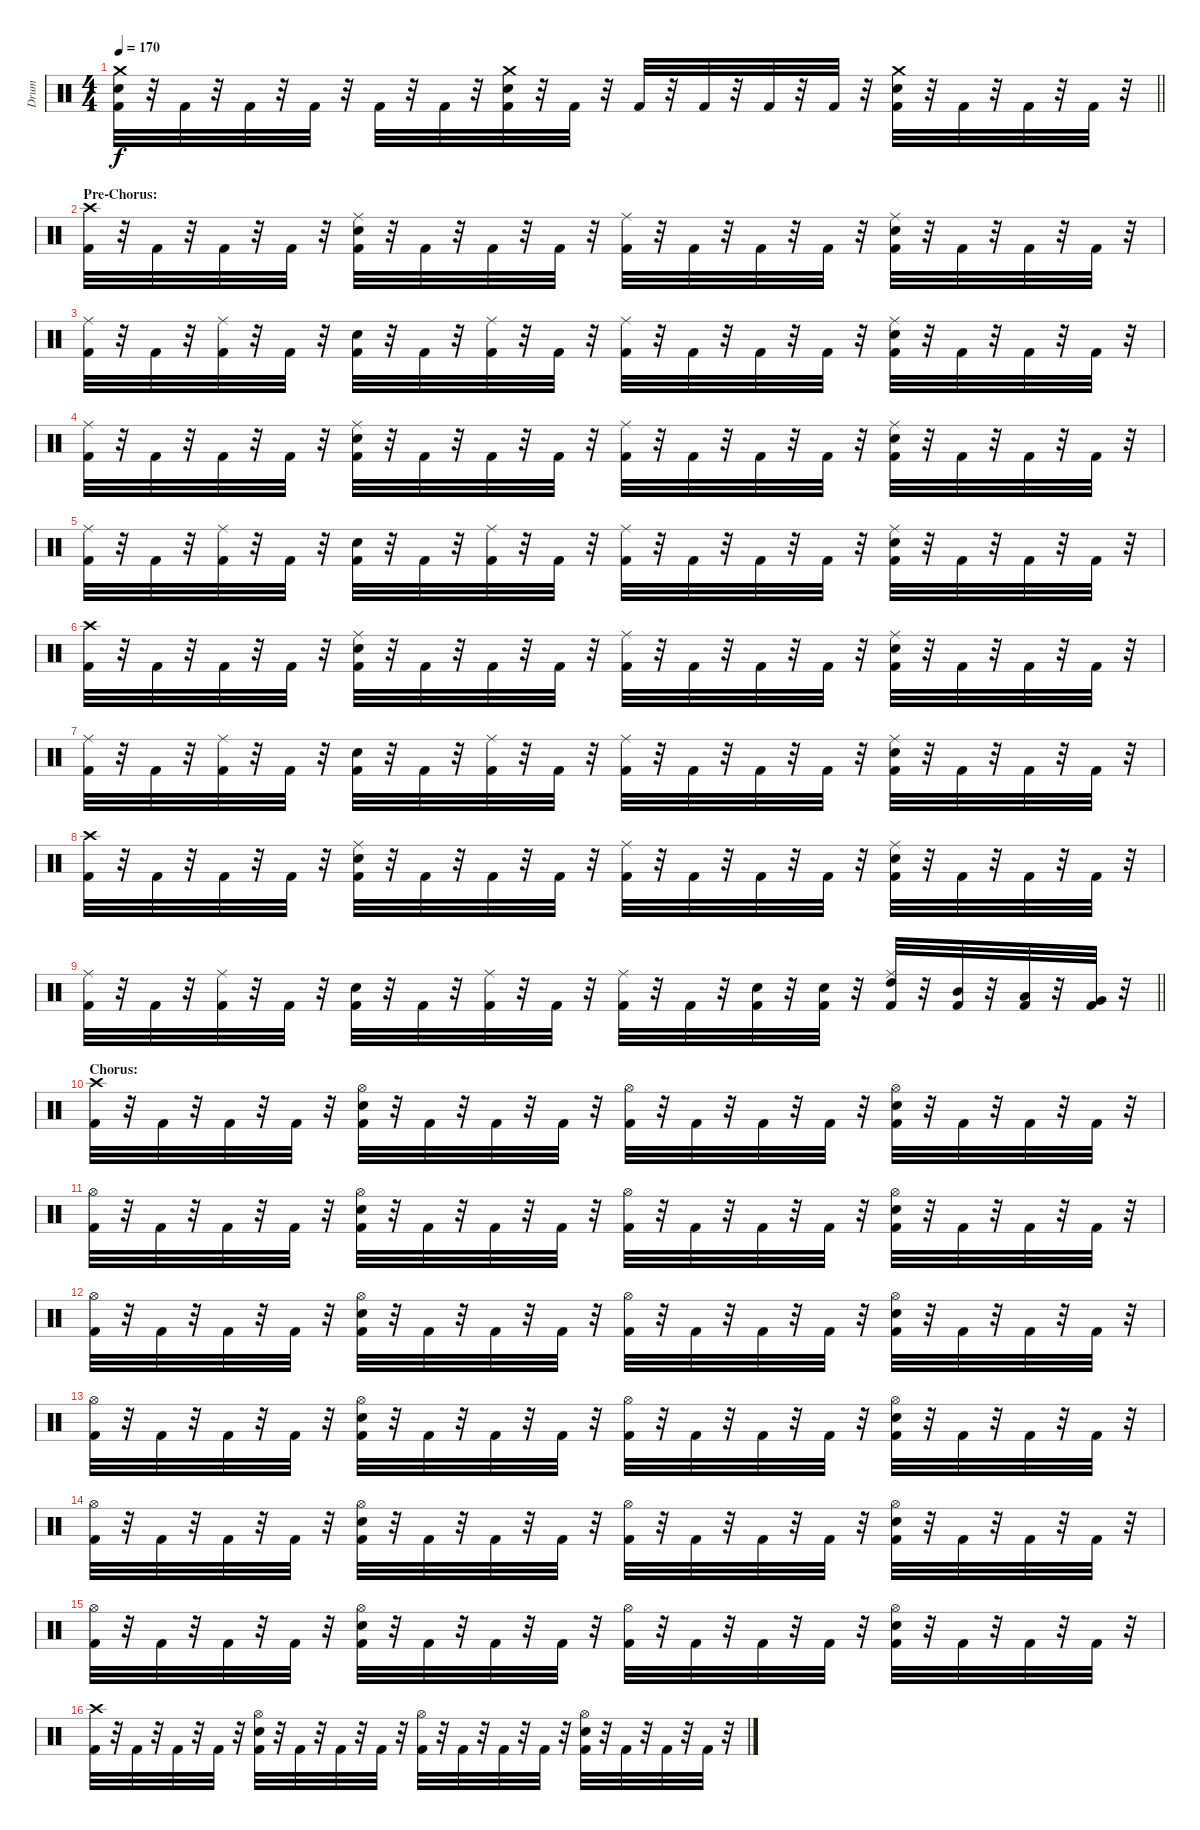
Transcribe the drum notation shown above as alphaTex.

\track ("Drum" "Drum") {instrument percussion}
\staff {score}
\articulation defaults
\ts (4 4)
\tempo 170
\clef neutral
\barLineRight lightlight
\ks c
("Crash medium (hit)" "Snare (hit) 2" "Kick (hit) 2").32{dy f} r.32 "Kick (hit) 2".32 r.32 "Kick (hit) 2".32 r.32 "Kick (hit) 2".32 r.32 "Kick (hit) 2".32 r.32 "Kick (hit) 2".32 r.32 ("Crash medium (hit)" "Snare (hit) 2" "Kick (hit) 2").32 r.32 "Kick (hit) 2".32 r.32 "Kick (hit) 2".32 r.32 "Kick (hit) 2".32 r.32 "Kick (hit) 2".32 r.32 "Kick (hit) 2".32 r.32 ("Crash medium (hit)" "Snare (hit) 2" "Kick (hit) 2").32 r.32 "Kick (hit) 2".32 r.32 "Kick (hit) 2".32 r.32 "Kick (hit) 2".32 r.32 |
\section ("" "Pre-Chorus:")
("Crash high (hit)" "Kick (hit) 2").32 r.32 "Kick (hit) 2".32 r.32 "Kick (hit) 2".32 r.32 "Kick (hit) 2".32 r.32 ("Kick (hit) 2" "Snare (hit) 2" "Ride (middle)").32 r.32 "Kick (hit) 2".32 r.32 "Kick (hit) 2".32 r.32 "Kick (hit) 2".32 r.32 ("Kick (hit) 2" "Ride (middle)").32 r.32 "Kick (hit) 2".32 r.32 "Kick (hit) 2".32 r.32 "Kick (hit) 2".32 r.32 ("Kick (hit) 2" "Snare (hit) 2" "Ride (middle)").32 r.32 "Kick (hit) 2".32 r.32 "Kick (hit) 2".32 r.32 "Kick (hit) 2".32 r.32 |
("Kick (hit) 2" "Ride (middle)").32 r.32 "Kick (hit) 2".32 r.32 ("Kick (hit) 2" "Ride (middle)").32 r.32 "Kick (hit) 2".32 r.32 ("Kick (hit) 2" "Snare (hit) 2").32 r.32 "Kick (hit) 2".32 r.32 ("Kick (hit) 2" "Ride (middle)").32 r.32 "Kick (hit) 2".32 r.32 ("Kick (hit) 2" "Ride (middle)").32 r.32 "Kick (hit) 2".32 r.32 "Kick (hit) 2".32 r.32 "Kick (hit) 2".32 r.32 ("Kick (hit) 2" "Snare (hit) 2" "Ride (middle)").32 r.32 "Kick (hit) 2".32 r.32 "Kick (hit) 2".32 r.32 "Kick (hit) 2".32 r.32 |
("Kick (hit) 2" "Ride (middle)").32 r.32 "Kick (hit) 2".32 r.32 "Kick (hit) 2".32 r.32 "Kick (hit) 2".32 r.32 ("Kick (hit) 2" "Ride (middle)" "Snare (hit) 2").32 r.32 "Kick (hit) 2".32 r.32 "Kick (hit) 2".32 r.32 "Kick (hit) 2".32 r.32 ("Kick (hit) 2" "Ride (middle)").32 r.32 "Kick (hit) 2".32 r.32 "Kick (hit) 2".32 r.32 "Kick (hit) 2".32 r.32 ("Kick (hit) 2" "Ride (middle)" "Snare (hit) 2").32 r.32 "Kick (hit) 2".32 r.32 "Kick (hit) 2".32 r.32 "Kick (hit) 2".32 r.32 |
("Kick (hit) 2" "Ride (middle)").32 r.32 "Kick (hit) 2".32 r.32 ("Kick (hit) 2" "Ride (middle)").32 r.32 "Kick (hit) 2".32 r.32 ("Kick (hit) 2" "Snare (hit) 2").32 r.32 "Kick (hit) 2".32 r.32 ("Kick (hit) 2" "Ride (middle)").32 r.32 "Kick (hit) 2".32 r.32 ("Kick (hit) 2" "Ride (middle)").32 r.32 "Kick (hit) 2".32 r.32 "Kick (hit) 2".32 r.32 "Kick (hit) 2".32 r.32 ("Kick (hit) 2" "Ride (middle)" "Snare (hit) 2").32 r.32 "Kick (hit) 2".32 r.32 "Kick (hit) 2".32 r.32 "Kick (hit) 2".32 r.32 |
("Kick (hit) 2" "Crash high (hit)").32 r.32 "Kick (hit) 2".32 r.32 "Kick (hit) 2".32 r.32 "Kick (hit) 2".32 r.32 ("Kick (hit) 2" "Ride (middle)" "Snare (hit) 2").32 r.32 "Kick (hit) 2".32 r.32 "Kick (hit) 2".32 r.32 "Kick (hit) 2".32 r.32 ("Kick (hit) 2" "Ride (middle)").32 r.32 "Kick (hit) 2".32 r.32 "Kick (hit) 2".32 r.32 "Kick (hit) 2".32 r.32 ("Kick (hit) 2" "Ride (middle)" "Snare (hit) 2").32 r.32 "Kick (hit) 2".32 r.32 "Kick (hit) 2".32 r.32 "Kick (hit) 2".32 r.32 |
("Kick (hit) 2" "Ride (middle)").32 r.32 "Kick (hit) 2".32 r.32 ("Kick (hit) 2" "Ride (middle)").32 r.32 "Kick (hit) 2".32 r.32 ("Kick (hit) 2" "Snare (hit) 2").32 r.32 "Kick (hit) 2".32 r.32 ("Kick (hit) 2" "Ride (middle)").32 r.32 "Kick (hit) 2".32 r.32 ("Kick (hit) 2" "Ride (middle)").32 r.32 "Kick (hit) 2".32 r.32 "Kick (hit) 2".32 r.32 "Kick (hit) 2".32 r.32 ("Kick (hit) 2" "Ride (middle)" "Snare (hit) 2").32 r.32 "Kick (hit) 2".32 r.32 "Kick (hit) 2".32 r.32 "Kick (hit) 2".32 r.32 |
("Crash high (hit)" "Kick (hit) 2").32 r.32 "Kick (hit) 2".32 r.32 "Kick (hit) 2".32 r.32 "Kick (hit) 2".32 r.32 ("Kick (hit) 2" "Ride (middle)" "Snare (hit) 2").32 r.32 "Kick (hit) 2".32 r.32 "Kick (hit) 2".32 r.32 "Kick (hit) 2".32 r.32 ("Kick (hit) 2" "Ride (middle)").32 r.32 "Kick (hit) 2".32 r.32 "Kick (hit) 2".32 r.32 "Kick (hit) 2".32 r.32 ("Kick (hit) 2" "Ride (middle)" "Snare (hit) 2").32 r.32 "Kick (hit) 2".32 r.32 "Kick (hit) 2".32 r.32 "Kick (hit) 2".32 r.32 |
\barLineRight lightlight
("Kick (hit) 2" "Ride (middle)").32 r.32 "Kick (hit) 2".32 r.32 ("Kick (hit) 2" "Ride (middle)").32 r.32 "Kick (hit) 2".32 r.32 ("Kick (hit) 2" "Snare (hit) 2").32 r.32 "Kick (hit) 2".32 r.32 ("Kick (hit) 2" "Ride (middle)").32 r.32 "Kick (hit) 2".32 r.32 ("Kick (hit) 2" "Ride (middle)").32 r.32 "Kick (hit) 2".32 r.32 ("Kick (hit) 2" "Snare (hit) 2").32 r.32 ("Kick (hit) 2" "Snare (hit) 2").32 r.32 ("Kick (hit) 2" "Ride (middle)" "High Tom (hit)").32 r.32 ("Kick (hit) 2" "Mid Tom (hit)").32 r.32 ("Kick (hit) 2" "Low Tom (hit)").32 r.32 ("Kick (hit) 2" "Very Low Tom (hit)").32 r.32 |
\section ("" "Chorus:")
("Kick (hit) 2" "Crash high (hit)").32 r.32 "Kick (hit) 2".32 r.32 "Kick (hit) 2".32 r.32 "Kick (hit) 2".32 r.32 ("Kick (hit) 2" "Snare (hit) 2" "Hi-Hat (open)").32 r.32 "Kick (hit) 2".32 r.32 "Kick (hit) 2".32 r.32 "Kick (hit) 2".32 r.32 ("Kick (hit) 2" "Hi-Hat (open)").32 r.32 "Kick (hit) 2".32 r.32 "Kick (hit) 2".32 r.32 "Kick (hit) 2".32 r.32 ("Kick (hit) 2" "Snare (hit) 2" "Hi-Hat (open)").32 r.32 "Kick (hit) 2".32 r.32 "Kick (hit) 2".32 r.32 "Kick (hit) 2".32 r.32 |
("Kick (hit) 2" "Hi-Hat (open)").32 r.32 "Kick (hit) 2".32 r.32 "Kick (hit) 2".32 r.32 "Kick (hit) 2".32 r.32 ("Kick (hit) 2" "Hi-Hat (open)" "Snare (hit) 2").32 r.32 "Kick (hit) 2".32 r.32 "Kick (hit) 2".32 r.32 "Kick (hit) 2".32 r.32 ("Kick (hit) 2" "Hi-Hat (open)").32 r.32 "Kick (hit) 2".32 r.32 "Kick (hit) 2".32 r.32 "Kick (hit) 2".32 r.32 ("Kick (hit) 2" "Hi-Hat (open)" "Snare (hit) 2").32 r.32 "Kick (hit) 2".32 r.32 "Kick (hit) 2".32 r.32 "Kick (hit) 2".32 r.32 |
("Kick (hit) 2" "Hi-Hat (open)").32 r.32 "Kick (hit) 2".32 r.32 "Kick (hit) 2".32 r.32 "Kick (hit) 2".32 r.32 ("Kick (hit) 2" "Hi-Hat (open)" "Snare (hit) 2").32 r.32 "Kick (hit) 2".32 r.32 "Kick (hit) 2".32 r.32 "Kick (hit) 2".32 r.32 ("Kick (hit) 2" "Hi-Hat (open)").32 r.32 "Kick (hit) 2".32 r.32 "Kick (hit) 2".32 r.32 "Kick (hit) 2".32 r.32 ("Kick (hit) 2" "Hi-Hat (open)" "Snare (hit) 2").32 r.32 "Kick (hit) 2".32 r.32 "Kick (hit) 2".32 r.32 "Kick (hit) 2".32 r.32 |
("Kick (hit) 2" "Hi-Hat (open)").32 r.32 "Kick (hit) 2".32 r.32 "Kick (hit) 2".32 r.32 "Kick (hit) 2".32 r.32 ("Kick (hit) 2" "Snare (hit) 2" "Hi-Hat (open)").32 r.32 "Kick (hit) 2".32 r.32 "Kick (hit) 2".32 r.32 "Kick (hit) 2".32 r.32 ("Kick (hit) 2" "Hi-Hat (open)").32 r.32 "Kick (hit) 2".32 r.32 "Kick (hit) 2".32 r.32 "Kick (hit) 2".32 r.32 ("Kick (hit) 2" "Snare (hit) 2" "Hi-Hat (open)").32 r.32 "Kick (hit) 2".32 r.32 "Kick (hit) 2".32 r.32 "Kick (hit) 2".32 r.32 |
("Kick (hit) 2" "Hi-Hat (open)").32 r.32 "Kick (hit) 2".32 r.32 "Kick (hit) 2".32 r.32 "Kick (hit) 2".32 r.32 ("Kick (hit) 2" "Hi-Hat (open)" "Snare (hit) 2").32 r.32 "Kick (hit) 2".32 r.32 "Kick (hit) 2".32 r.32 "Kick (hit) 2".32 r.32 ("Kick (hit) 2" "Hi-Hat (open)").32 r.32 "Kick (hit) 2".32 r.32 "Kick (hit) 2".32 r.32 "Kick (hit) 2".32 r.32 ("Kick (hit) 2" "Hi-Hat (open)" "Snare (hit) 2").32 r.32 "Kick (hit) 2".32 r.32 "Kick (hit) 2".32 r.32 "Kick (hit) 2".32 r.32 |
("Kick (hit) 2" "Hi-Hat (open)").32 r.32 "Kick (hit) 2".32 r.32 "Kick (hit) 2".32 r.32 "Kick (hit) 2".32 r.32 ("Kick (hit) 2" "Snare (hit) 2" "Hi-Hat (open)").32 r.32 "Kick (hit) 2".32 r.32 "Kick (hit) 2".32 r.32 "Kick (hit) 2".32 r.32 ("Kick (hit) 2" "Hi-Hat (open)").32 r.32 "Kick (hit) 2".32 r.32 "Kick (hit) 2".32 r.32 "Kick (hit) 2".32 r.32 ("Kick (hit) 2" "Snare (hit) 2" "Hi-Hat (open)").32 r.32 "Kick (hit) 2".32 r.32 "Kick (hit) 2".32 r.32 "Kick (hit) 2".32 r.32 |
("Kick (hit) 2" "Crash high (hit)").32 r.32 "Kick (hit) 2".32 r.32 "Kick (hit) 2".32 r.32 "Kick (hit) 2".32 r.32 ("Kick (hit) 2" "Snare (hit) 2" "Hi-Hat (open)").32 r.32 "Kick (hit) 2".32 r.32 "Kick (hit) 2".32 r.32 "Kick (hit) 2".32 r.32 ("Kick (hit) 2" "Hi-Hat (open)").32 r.32 "Kick (hit) 2".32 r.32 "Kick (hit) 2".32 r.32 "Kick (hit) 2".32 r.32 ("Kick (hit) 2" "Snare (hit) 2" "Hi-Hat (open)").32 r.32 "Kick (hit) 2".32 r.32 "Kick (hit) 2".32 r.32 "Kick (hit) 2".32 r.32
